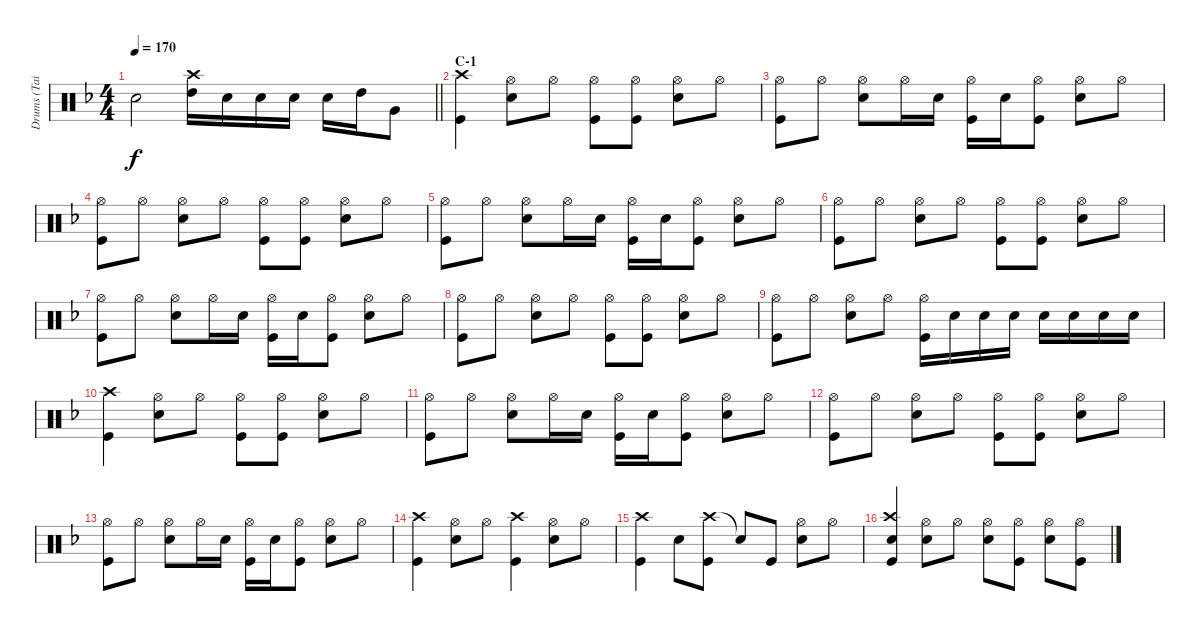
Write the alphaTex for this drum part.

\track ("Drums (Tainaka Ritsu)" "Drums (Tai") {instrument percussion}
\staff {score}
\articulation defaults
\ts (4 4)
\tempo 170
\clef neutral
\barLineRight lightlight
\ks f "Snare (hit)"{t}.2{dy f}
("Crash high (hit)" "High Tom (hit)").16 "Snare (hit) 2".16 "Snare (hit) 2".16 "Snare (hit) 2".16 "Snare (hit) 2".16 "High Tom (hit)".16 "Very Low Tom (hit)".8 |
\section ("" "C-1")
("Crash high (hit)" "Kick (hit)").4 ("Hi-Hat (open)" "Snare (hit) 2").8 "Hi-Hat (open)".8 ("Hi-Hat (open)" "Kick (hit)").8 ("Hi-Hat (open)" "Kick (hit)").8 ("Hi-Hat (open)" "Snare (hit) 2").8 "Hi-Hat (open)".8 |
("Hi-Hat (open)" "Kick (hit)").8 "Hi-Hat (open)".8 ("Hi-Hat (open)" "Snare (hit) 2").8 "Hi-Hat (open)".16 "Snare (hit) 2".16 ("Hi-Hat (open)" "Kick (hit)").16 "Snare (hit) 2".16 ("Hi-Hat (open)" "Kick (hit)").8 ("Hi-Hat (open)" "Snare (hit) 2").8 "Hi-Hat (open)".8 |
("Hi-Hat (open)" "Kick (hit)").8 "Hi-Hat (open)".8 ("Hi-Hat (open)" "Snare (hit) 2").8 "Hi-Hat (open)".8 ("Hi-Hat (open)" "Kick (hit)").8 ("Hi-Hat (open)" "Kick (hit)").8 ("Hi-Hat (open)" "Snare (hit) 2").8 "Hi-Hat (open)".8 |
("Hi-Hat (open)" "Kick (hit)").8 "Hi-Hat (open)".8 ("Hi-Hat (open)" "Snare (hit) 2").8 "Hi-Hat (open)".16 "Snare (hit) 2".16 ("Hi-Hat (open)" "Kick (hit)").16 "Snare (hit) 2".16 ("Hi-Hat (open)" "Kick (hit)").8 ("Hi-Hat (open)" "Snare (hit) 2").8 "Hi-Hat (open)".8 |
("Hi-Hat (open)" "Kick (hit)").8 "Hi-Hat (open)".8 ("Hi-Hat (open)" "Snare (hit) 2").8 "Hi-Hat (open)".8 ("Hi-Hat (open)" "Kick (hit)").8 ("Hi-Hat (open)" "Kick (hit)").8 ("Hi-Hat (open)" "Snare (hit) 2").8 "Hi-Hat (open)".8 |
("Hi-Hat (open)" "Kick (hit)").8 "Hi-Hat (open)".8 ("Hi-Hat (open)" "Snare (hit) 2").8 "Hi-Hat (open)".16 "Snare (hit) 2".16 ("Hi-Hat (open)" "Kick (hit)").16 "Snare (hit) 2".16 ("Hi-Hat (open)" "Kick (hit)").8 ("Hi-Hat (open)" "Snare (hit) 2").8 "Hi-Hat (open)".8 |
("Hi-Hat (open)" "Kick (hit)").8 "Hi-Hat (open)".8 ("Hi-Hat (open)" "Snare (hit) 2").8 "Hi-Hat (open)".8 ("Hi-Hat (open)" "Kick (hit)").8 ("Hi-Hat (open)" "Kick (hit)").8 ("Hi-Hat (open)" "Snare (hit) 2").8 "Hi-Hat (open)".8 |
("Hi-Hat (open)" "Kick (hit)").8 "Hi-Hat (open)".8 ("Hi-Hat (open)" "Snare (hit) 2").8 "Hi-Hat (open)".8 ("Hi-Hat (open)" "Kick (hit)").16 "Snare (hit) 2".16 "Snare (hit) 2".16 "Snare (hit) 2".16 "Snare (hit) 2".16 "Snare (hit) 2".16 "Snare (hit) 2".16 "Snare (hit) 2".16 |
("Crash high (hit)" "Kick (hit)").4 ("Hi-Hat (open)" "Snare (hit) 2").8 "Hi-Hat (open)".8 ("Hi-Hat (open)" "Kick (hit)").8 ("Hi-Hat (open)" "Kick (hit)").8 ("Hi-Hat (open)" "Snare (hit) 2").8 "Hi-Hat (open)".8 |
("Hi-Hat (open)" "Kick (hit)").8 "Hi-Hat (open)".8 ("Hi-Hat (open)" "Snare (hit) 2").8 "Hi-Hat (open)".16 "Snare (hit) 2".16 ("Hi-Hat (open)" "Kick (hit)").16 "Snare (hit) 2".16 ("Hi-Hat (open)" "Kick (hit)").8 ("Hi-Hat (open)" "Snare (hit) 2").8 "Hi-Hat (open)".8 |
("Hi-Hat (open)" "Kick (hit)").8 "Hi-Hat (open)".8 ("Hi-Hat (open)" "Snare (hit) 2").8 "Hi-Hat (open)".8 ("Hi-Hat (open)" "Kick (hit)").8 ("Hi-Hat (open)" "Kick (hit)").8 ("Hi-Hat (open)" "Snare (hit) 2").8 "Hi-Hat (open)".8 |
("Hi-Hat (open)" "Kick (hit)").8 "Hi-Hat (open)".8 ("Hi-Hat (open)" "Snare (hit) 2").8 "Hi-Hat (open)".16 "Snare (hit) 2".16 ("Hi-Hat (open)" "Kick (hit)").16 "Snare (hit) 2".16 ("Hi-Hat (open)" "Kick (hit)").8 ("Hi-Hat (open)" "Snare (hit) 2").8 "Hi-Hat (open)".8 |
("Crash high (hit)" "Kick (hit)").4 ("Hi-Hat (open)" "Snare (hit) 2").8 "Hi-Hat (open)".8 ("Crash high (hit)" "Kick (hit)").4 ("Hi-Hat (open)" "Snare (hit) 2").8 "Hi-Hat (open)".8 |
("Crash high (hit)" "Kick (hit)").4 "Snare (hit) 2".8 ("Crash high (hit)" "Kick (hit)").8 "Snare (hit)"{t}.8 "Kick (hit)".8 ("Hi-Hat (open)" "Snare (hit) 2").8 "Hi-Hat (open)".8 |
("Crash high (hit)" "Snare (hit) 2" "Kick (hit)").4 ("Hi-Hat (open)" "Snare (hit) 2").8 "Hi-Hat (open)".8 ("Hi-Hat (open)" "Snare (hit) 2").8 ("Hi-Hat (open)" "Kick (hit)").8 ("Hi-Hat (open)" "Snare (hit) 2").8 ("Hi-Hat (open)" "Kick (hit)").8
